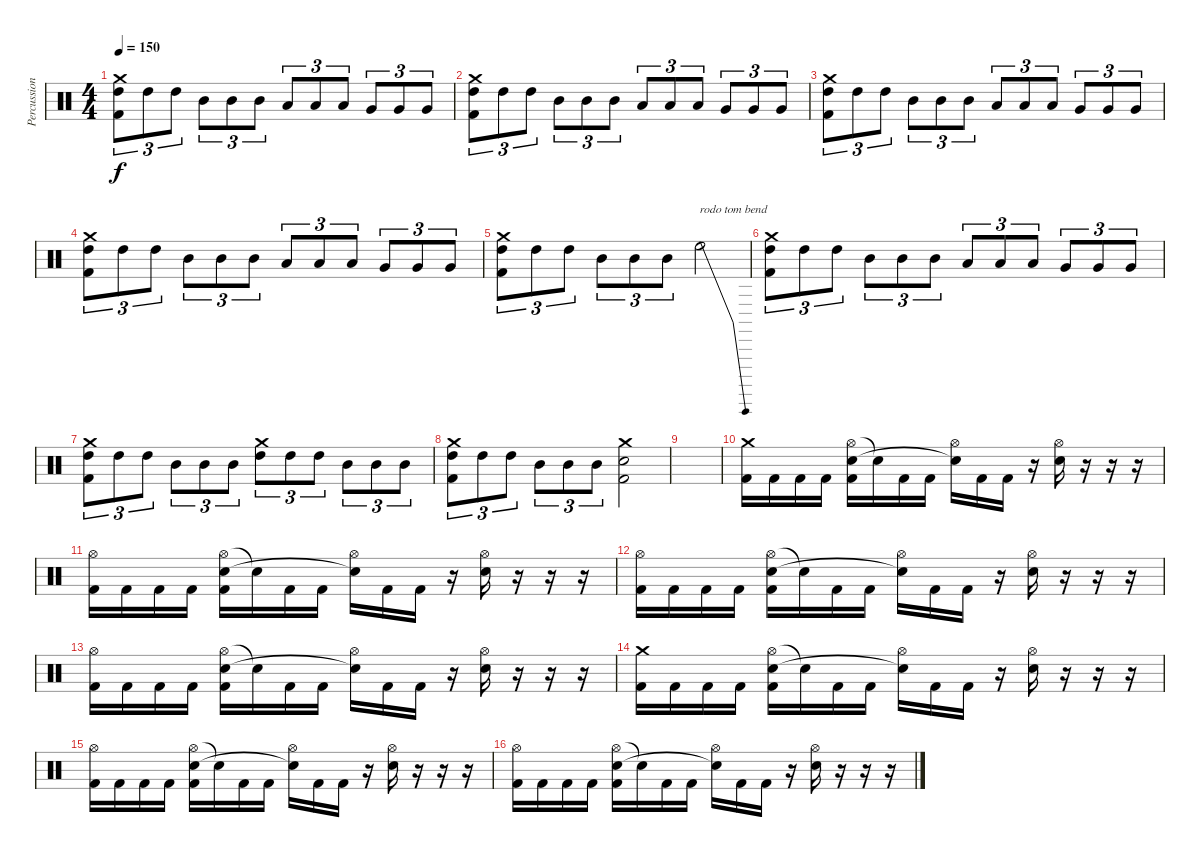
\track ("Percussion" "Percussion") {instrument percussion}
\staff {score}
\articulation defaults
\ts (4 4)
\tempo 150
\clef neutral
\ks c
("Crash medium (hit)" "High Tom (hit)" "Kick (hit) 2").8{tu (3 2) dy f} "High Tom (hit)".8{tu (3 2)} "High Tom (hit)".8{tu (3 2)} "Mid Tom (hit)".8{tu (3 2)} "Mid Tom (hit)".8{tu (3 2)} "Mid Tom (hit)".8{tu (3 2)} "Low Tom (hit)".8{tu (3 2)} "Low Tom (hit)".8{tu (3 2)} "Low Tom (hit)".8{tu (3 2)} "Very Low Tom (hit)".8{tu (3 2)} "Very Low Tom (hit)".8{tu (3 2)} "Very Low Tom (hit)".8{tu (3 2)} |
("Crash medium (hit)" "High Tom (hit)" "Kick (hit) 2").8{tu (3 2)} "High Tom (hit)".8{tu (3 2)} "High Tom (hit)".8{tu (3 2)} "Mid Tom (hit)".8{tu (3 2)} "Mid Tom (hit)".8{tu (3 2)} "Mid Tom (hit)".8{tu (3 2)} "Low Tom (hit)".8{tu (3 2)} "Low Tom (hit)".8{tu (3 2)} "Low Tom (hit)".8{tu (3 2)} "Very Low Tom (hit)".8{tu (3 2)} "Very Low Tom (hit)".8{tu (3 2)} "Very Low Tom (hit)".8{tu (3 2)} |
("Crash medium (hit)" "High Tom (hit)" "Kick (hit) 2").8{tu (3 2)} "High Tom (hit)".8{tu (3 2)} "High Tom (hit)".8{tu (3 2)} "Mid Tom (hit)".8{tu (3 2)} "Mid Tom (hit)".8{tu (3 2)} "Mid Tom (hit)".8{tu (3 2)} "Low Tom (hit)".8{tu (3 2)} "Low Tom (hit)".8{tu (3 2)} "Low Tom (hit)".8{tu (3 2)} "Very Low Tom (hit)".8{tu (3 2)} "Very Low Tom (hit)".8{tu (3 2)} "Very Low Tom (hit)".8{tu (3 2)} |
("Crash medium (hit)" "High Tom (hit)" "Kick (hit) 2").8{tu (3 2)} "High Tom (hit)".8{tu (3 2)} "High Tom (hit)".8{tu (3 2)} "Mid Tom (hit)".8{tu (3 2)} "Mid Tom (hit)".8{tu (3 2)} "Mid Tom (hit)".8{tu (3 2)} "Low Tom (hit)".8{tu (3 2)} "Low Tom (hit)".8{tu (3 2)} "Low Tom (hit)".8{tu (3 2)} "Very Low Tom (hit)".8{tu (3 2)} "Very Low Tom (hit)".8{tu (3 2)} "Very Low Tom (hit)".8{tu (3 2)} |
("Crash medium (hit)" "High Tom (hit)" "Kick (hit) 2").8{tu (3 2)} "High Tom (hit)".8{tu (3 2)} "High Tom (hit)".8{tu (3 2)} "Mid Tom (hit)".8{tu (3 2)} "Mid Tom (hit)".8{tu (3 2)} "Mid Tom (hit)".8{tu (3 2)} "High Floor Tom (hit)"{be (bend 0 0 60 12)}.2{txt "rodo tom bend"} |
("Crash medium (hit)" "High Tom (hit)" "Kick (hit) 2").8{tu (3 2)} "High Tom (hit)".8{tu (3 2)} "High Tom (hit)".8{tu (3 2)} "Mid Tom (hit)".8{tu (3 2)} "Mid Tom (hit)".8{tu (3 2)} "Mid Tom (hit)".8{tu (3 2)} "Low Tom (hit)".8{tu (3 2)} "Low Tom (hit)".8{tu (3 2)} "Low Tom (hit)".8{tu (3 2)} "Very Low Tom (hit)".8{tu (3 2)} "Very Low Tom (hit)".8{tu (3 2)} "Very Low Tom (hit)".8{tu (3 2)} |
("Crash medium (hit)" "High Tom (hit)" "Kick (hit) 2").8{tu (3 2)} "High Tom (hit)".8{tu (3 2)} "High Tom (hit)".8{tu (3 2)} "Mid Tom (hit)".8{tu (3 2)} "Mid Tom (hit)".8{tu (3 2)} "Mid Tom (hit)".8{tu (3 2)} ("Crash medium (hit)" "High Tom (hit)").8{tu (3 2)} "High Tom (hit)".8{tu (3 2)} "High Tom (hit)".8{tu (3 2)} "Mid Tom (hit)".8{tu (3 2)} "Mid Tom (hit)".8{tu (3 2)} "Mid Tom (hit)".8{tu (3 2)} |
("Crash medium (hit)" "High Tom (hit)" "Kick (hit) 2").8{tu (3 2)} "High Tom (hit)".8{tu (3 2)} "High Tom (hit)".8{tu (3 2)} "Mid Tom (hit)".8{tu (3 2)} "Mid Tom (hit)".8{tu (3 2)} "Mid Tom (hit)".8{tu (3 2)} ("Crash medium (hit)" "Electric Snare (hit)" "Kick (hit) 2").2 |
|
("Crash medium (hit)" "Kick (hit) 2").16 "Kick (hit) 2".16 "Kick (hit) 2".16 "Kick (hit) 2".16 ("Hi-Hat (open)" "Electric Snare (hit)" "Kick (hit) 2").16 "Snare (hit)"{t}.16 "Kick (hit) 2".16 "Kick (hit) 2".16 ("Hi-Hat (open)" "Snare (hit)"{t}).16 "Kick (hit) 2".16 "Kick (hit) 2".16 r.16 ("Hi-Hat (open)" "Electric Snare (hit)").16 r.16 r.16 r.16 |
("Hi-Hat (open)" "Kick (hit) 2").16 "Kick (hit) 2".16 "Kick (hit) 2".16 "Kick (hit) 2".16 ("Hi-Hat (open)" "Electric Snare (hit)" "Kick (hit) 2").16 "Snare (hit)"{t}.16 "Kick (hit) 2".16 "Kick (hit) 2".16 ("Hi-Hat (open)" "Snare (hit)"{t}).16 "Kick (hit) 2".16 "Kick (hit) 2".16 r.16 ("Hi-Hat (open)" "Electric Snare (hit)").16 r.16 r.16 r.16 |
("Hi-Hat (open)" "Kick (hit) 2").16 "Kick (hit) 2".16 "Kick (hit) 2".16 "Kick (hit) 2".16 ("Hi-Hat (open)" "Electric Snare (hit)" "Kick (hit) 2").16 "Snare (hit)"{t}.16 "Kick (hit) 2".16 "Kick (hit) 2".16 ("Hi-Hat (open)" "Snare (hit)"{t}).16 "Kick (hit) 2".16 "Kick (hit) 2".16 r.16 ("Hi-Hat (open)" "Electric Snare (hit)").16 r.16 r.16 r.16 |
("Hi-Hat (open)" "Kick (hit) 2").16 "Kick (hit) 2".16 "Kick (hit) 2".16 "Kick (hit) 2".16 ("Hi-Hat (open)" "Electric Snare (hit)" "Kick (hit) 2").16 "Snare (hit)"{t}.16 "Kick (hit) 2".16 "Kick (hit) 2".16 ("Hi-Hat (open)" "Snare (hit)"{t}).16 "Kick (hit) 2".16 "Kick (hit) 2".16 r.16 ("Hi-Hat (open)" "Electric Snare (hit)").16 r.16 r.16 r.16 |
("Crash medium (hit)" "Kick (hit) 2").16 "Kick (hit) 2".16 "Kick (hit) 2".16 "Kick (hit) 2".16 ("Hi-Hat (open)" "Electric Snare (hit)" "Kick (hit) 2").16 "Snare (hit)"{t}.16 "Kick (hit) 2".16 "Kick (hit) 2".16 ("Hi-Hat (open)" "Snare (hit)"{t}).16 "Kick (hit) 2".16 "Kick (hit) 2".16 r.16 ("Hi-Hat (open)" "Electric Snare (hit)").16 r.16 r.16 r.16 |
("Hi-Hat (open)" "Kick (hit) 2").16 "Kick (hit) 2".16 "Kick (hit) 2".16 "Kick (hit) 2".16 ("Hi-Hat (open)" "Electric Snare (hit)" "Kick (hit) 2").16 "Snare (hit)"{t}.16 "Kick (hit) 2".16 "Kick (hit) 2".16 ("Hi-Hat (open)" "Snare (hit)"{t}).16 "Kick (hit) 2".16 "Kick (hit) 2".16 r.16 ("Hi-Hat (open)" "Electric Snare (hit)").16 r.16 r.16 r.16 |
("Hi-Hat (open)" "Kick (hit) 2").16 "Kick (hit) 2".16 "Kick (hit) 2".16 "Kick (hit) 2".16 ("Hi-Hat (open)" "Electric Snare (hit)" "Kick (hit) 2").16 "Snare (hit)"{t}.16 "Kick (hit) 2".16 "Kick (hit) 2".16 ("Hi-Hat (open)" "Snare (hit)"{t}).16 "Kick (hit) 2".16 "Kick (hit) 2".16 r.16 ("Hi-Hat (open)" "Electric Snare (hit)").16 r.16 r.16 r.16
